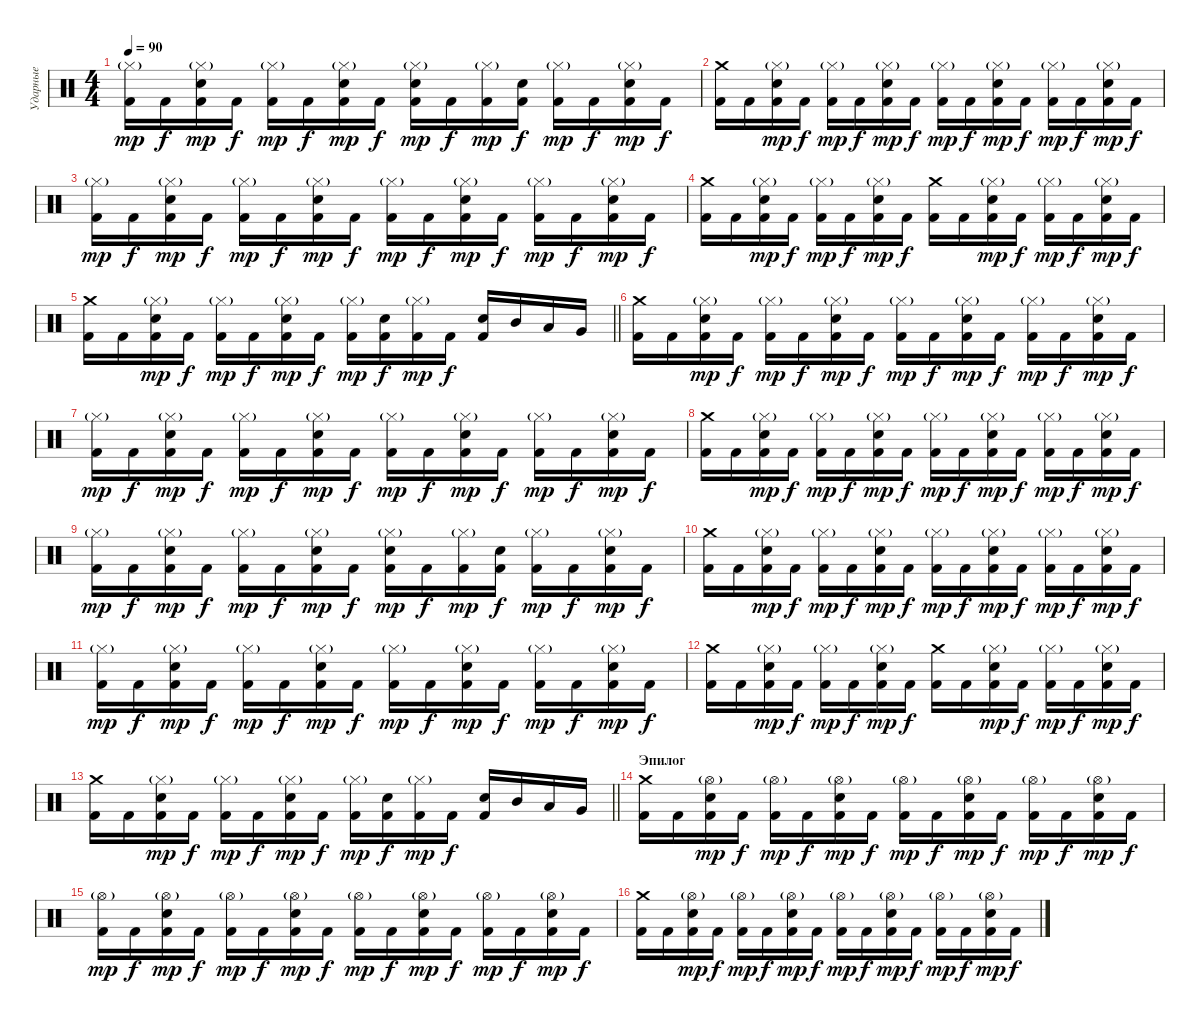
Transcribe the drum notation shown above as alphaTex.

\track ("Ударные" "Ударные") {instrument percussion}
\staff {score}
\articulation defaults
\ts (4 4)
\tempo 90
\clef neutral
\ks c
("Hi-Hat (closed)"{g} "Kick (hit) 2").16{dy mp} "Kick (hit) 2".16{dy f} ("Snare (hit) 2" "Hi-Hat (closed)"{g} "Kick (hit) 2").16{dy mp} "Kick (hit) 2".16{dy f} ("Hi-Hat (closed)"{g} "Kick (hit) 2").16{dy mp} "Kick (hit) 2".16{dy f} ("Snare (hit) 2" "Hi-Hat (closed)"{g} "Kick (hit) 2").16{dy mp} "Kick (hit) 2".16{dy f} ("Snare (hit) 2" "Hi-Hat (closed)"{g} "Kick (hit) 2").16{dy mp} "Kick (hit) 2".16{dy f} ("Hi-Hat (closed)"{g} "Kick (hit) 2").16{dy mp} ("Snare (hit) 2" "Kick (hit) 2").16{dy f} ("Hi-Hat (closed)"{g} "Kick (hit) 2").16{dy mp} "Kick (hit) 2".16{dy f} ("Snare (hit) 2" "Hi-Hat (closed)"{g} "Kick (hit) 2").16{dy mp} "Kick (hit) 2".16{dy f} |
("Crash medium (hit)" "Kick (hit) 2").16 "Kick (hit) 2".16 ("Snare (hit) 2" "Hi-Hat (closed)"{g} "Kick (hit) 2").16{dy mp} "Kick (hit) 2".16{dy f} ("Hi-Hat (closed)"{g} "Kick (hit) 2").16{dy mp} "Kick (hit) 2".16{dy f} ("Snare (hit) 2" "Hi-Hat (closed)"{g} "Kick (hit) 2").16{dy mp} "Kick (hit) 2".16{dy f} ("Hi-Hat (closed)"{g} "Kick (hit) 2").16{dy mp} "Kick (hit) 2".16{dy f} ("Snare (hit) 2" "Hi-Hat (closed)"{g} "Kick (hit) 2").16{dy mp} "Kick (hit) 2".16{dy f} ("Hi-Hat (closed)"{g} "Kick (hit) 2").16{dy mp} "Kick (hit) 2".16{dy f} ("Snare (hit) 2" "Hi-Hat (closed)"{g} "Kick (hit) 2").16{dy mp} "Kick (hit) 2".16{dy f} |
("Hi-Hat (closed)"{g} "Kick (hit) 2").16{dy mp} "Kick (hit) 2".16{dy f} ("Snare (hit) 2" "Hi-Hat (closed)"{g} "Kick (hit) 2").16{dy mp} "Kick (hit) 2".16{dy f} ("Hi-Hat (closed)"{g} "Kick (hit) 2").16{dy mp} "Kick (hit) 2".16{dy f} ("Snare (hit) 2" "Hi-Hat (closed)"{g} "Kick (hit) 2").16{dy mp} "Kick (hit) 2".16{dy f} ("Hi-Hat (closed)"{g} "Kick (hit) 2").16{dy mp} "Kick (hit) 2".16{dy f} ("Snare (hit) 2" "Hi-Hat (closed)"{g} "Kick (hit) 2").16{dy mp} "Kick (hit) 2".16{dy f} ("Hi-Hat (closed)"{g} "Kick (hit) 2").16{dy mp} "Kick (hit) 2".16{dy f} ("Snare (hit) 2" "Hi-Hat (closed)"{g} "Kick (hit) 2").16{dy mp} "Kick (hit) 2".16{dy f} |
("Crash medium (hit)" "Kick (hit) 2").16 "Kick (hit) 2".16 ("Snare (hit) 2" "Hi-Hat (closed)"{g} "Kick (hit) 2").16{dy mp} "Kick (hit) 2".16{dy f} ("Hi-Hat (closed)"{g} "Kick (hit) 2").16{dy mp} "Kick (hit) 2".16{dy f} ("Snare (hit) 2" "Hi-Hat (closed)"{g} "Kick (hit) 2").16{dy mp} "Kick (hit) 2".16{dy f} ("Crash medium (hit)" "Kick (hit) 2").16 "Kick (hit) 2".16 ("Snare (hit) 2" "Hi-Hat (closed)"{g} "Kick (hit) 2").16{dy mp} "Kick (hit) 2".16{dy f} ("Hi-Hat (closed)"{g} "Kick (hit) 2").16{dy mp} "Kick (hit) 2".16{dy f} ("Snare (hit) 2" "Hi-Hat (closed)"{g} "Kick (hit) 2").16{dy mp} "Kick (hit) 2".16{dy f} |
\barLineRight lightlight
("Crash medium (hit)" "Kick (hit) 2").16 "Kick (hit) 2".16 ("Snare (hit) 2" "Hi-Hat (closed)"{g} "Kick (hit) 2").16{dy mp} "Kick (hit) 2".16{dy f} ("Hi-Hat (closed)"{g} "Kick (hit) 2").16{dy mp} "Kick (hit) 2".16{dy f} ("Snare (hit) 2" "Hi-Hat (closed)"{g} "Kick (hit) 2").16{dy mp} "Kick (hit) 2".16{dy f} ("Hi-Hat (closed)"{g} "Kick (hit) 2").16{dy mp} ("Snare (hit) 2" "Kick (hit) 2").16{dy f} ("Hi-Hat (closed)"{g} "Kick (hit) 2").16{dy mp} "Kick (hit) 2".16{dy f} ("Snare (hit) 2" "Kick (hit) 2").16 "Mid Tom (hit)".16 "Low Tom (hit)".16 "Very Low Tom (hit)".16 |
("Crash medium (hit)" "Kick (hit) 2").16 "Kick (hit) 2".16 ("Snare (hit) 2" "Hi-Hat (closed)"{g} "Kick (hit) 2").16{dy mp} "Kick (hit) 2".16{dy f} ("Hi-Hat (closed)"{g} "Kick (hit) 2").16{dy mp} "Kick (hit) 2".16{dy f} ("Snare (hit) 2" "Hi-Hat (closed)"{g} "Kick (hit) 2").16{dy mp} "Kick (hit) 2".16{dy f} ("Hi-Hat (closed)"{g} "Kick (hit) 2").16{dy mp} "Kick (hit) 2".16{dy f} ("Snare (hit) 2" "Hi-Hat (closed)"{g} "Kick (hit) 2").16{dy mp} "Kick (hit) 2".16{dy f} ("Hi-Hat (closed)"{g} "Kick (hit) 2").16{dy mp} "Kick (hit) 2".16{dy f} ("Snare (hit) 2" "Hi-Hat (closed)"{g} "Kick (hit) 2").16{dy mp} "Kick (hit) 2".16{dy f} |
("Hi-Hat (closed)"{g} "Kick (hit) 2").16{dy mp} "Kick (hit) 2".16{dy f} ("Snare (hit) 2" "Hi-Hat (closed)"{g} "Kick (hit) 2").16{dy mp} "Kick (hit) 2".16{dy f} ("Hi-Hat (closed)"{g} "Kick (hit) 2").16{dy mp} "Kick (hit) 2".16{dy f} ("Snare (hit) 2" "Hi-Hat (closed)"{g} "Kick (hit) 2").16{dy mp} "Kick (hit) 2".16{dy f} ("Hi-Hat (closed)"{g} "Kick (hit) 2").16{dy mp} "Kick (hit) 2".16{dy f} ("Snare (hit) 2" "Hi-Hat (closed)"{g} "Kick (hit) 2").16{dy mp} "Kick (hit) 2".16{dy f} ("Hi-Hat (closed)"{g} "Kick (hit) 2").16{dy mp} "Kick (hit) 2".16{dy f} ("Snare (hit) 2" "Hi-Hat (closed)"{g} "Kick (hit) 2").16{dy mp} "Kick (hit) 2".16{dy f} |
("Crash medium (hit)" "Kick (hit) 2").16 "Kick (hit) 2".16 ("Snare (hit) 2" "Hi-Hat (closed)"{g} "Kick (hit) 2").16{dy mp} "Kick (hit) 2".16{dy f} ("Hi-Hat (closed)"{g} "Kick (hit) 2").16{dy mp} "Kick (hit) 2".16{dy f} ("Snare (hit) 2" "Hi-Hat (closed)"{g} "Kick (hit) 2").16{dy mp} "Kick (hit) 2".16{dy f} ("Hi-Hat (closed)"{g} "Kick (hit) 2").16{dy mp} "Kick (hit) 2".16{dy f} ("Snare (hit) 2" "Hi-Hat (closed)"{g} "Kick (hit) 2").16{dy mp} "Kick (hit) 2".16{dy f} ("Hi-Hat (closed)"{g} "Kick (hit) 2").16{dy mp} "Kick (hit) 2".16{dy f} ("Snare (hit) 2" "Hi-Hat (closed)"{g} "Kick (hit) 2").16{dy mp} "Kick (hit) 2".16{dy f} |
("Hi-Hat (closed)"{g} "Kick (hit) 2").16{dy mp} "Kick (hit) 2".16{dy f} ("Snare (hit) 2" "Hi-Hat (closed)"{g} "Kick (hit) 2").16{dy mp} "Kick (hit) 2".16{dy f} ("Hi-Hat (closed)"{g} "Kick (hit) 2").16{dy mp} "Kick (hit) 2".16{dy f} ("Snare (hit) 2" "Hi-Hat (closed)"{g} "Kick (hit) 2").16{dy mp} "Kick (hit) 2".16{dy f} ("Snare (hit) 2" "Hi-Hat (closed)"{g} "Kick (hit) 2").16{dy mp} "Kick (hit) 2".16{dy f} ("Hi-Hat (closed)"{g} "Kick (hit) 2").16{dy mp} ("Snare (hit) 2" "Kick (hit) 2").16{dy f} ("Hi-Hat (closed)"{g} "Kick (hit) 2").16{dy mp} "Kick (hit) 2".16{dy f} ("Snare (hit) 2" "Hi-Hat (closed)"{g} "Kick (hit) 2").16{dy mp} "Kick (hit) 2".16{dy f} |
("Crash medium (hit)" "Kick (hit) 2").16 "Kick (hit) 2".16 ("Snare (hit) 2" "Hi-Hat (closed)"{g} "Kick (hit) 2").16{dy mp} "Kick (hit) 2".16{dy f} ("Hi-Hat (closed)"{g} "Kick (hit) 2").16{dy mp} "Kick (hit) 2".16{dy f} ("Snare (hit) 2" "Hi-Hat (closed)"{g} "Kick (hit) 2").16{dy mp} "Kick (hit) 2".16{dy f} ("Hi-Hat (closed)"{g} "Kick (hit) 2").16{dy mp} "Kick (hit) 2".16{dy f} ("Snare (hit) 2" "Hi-Hat (closed)"{g} "Kick (hit) 2").16{dy mp} "Kick (hit) 2".16{dy f} ("Hi-Hat (closed)"{g} "Kick (hit) 2").16{dy mp} "Kick (hit) 2".16{dy f} ("Snare (hit) 2" "Hi-Hat (closed)"{g} "Kick (hit) 2").16{dy mp} "Kick (hit) 2".16{dy f} |
("Hi-Hat (closed)"{g} "Kick (hit) 2").16{dy mp} "Kick (hit) 2".16{dy f} ("Snare (hit) 2" "Hi-Hat (closed)"{g} "Kick (hit) 2").16{dy mp} "Kick (hit) 2".16{dy f} ("Hi-Hat (closed)"{g} "Kick (hit) 2").16{dy mp} "Kick (hit) 2".16{dy f} ("Snare (hit) 2" "Hi-Hat (closed)"{g} "Kick (hit) 2").16{dy mp} "Kick (hit) 2".16{dy f} ("Hi-Hat (closed)"{g} "Kick (hit) 2").16{dy mp} "Kick (hit) 2".16{dy f} ("Snare (hit) 2" "Hi-Hat (closed)"{g} "Kick (hit) 2").16{dy mp} "Kick (hit) 2".16{dy f} ("Hi-Hat (closed)"{g} "Kick (hit) 2").16{dy mp} "Kick (hit) 2".16{dy f} ("Snare (hit) 2" "Hi-Hat (closed)"{g} "Kick (hit) 2").16{dy mp} "Kick (hit) 2".16{dy f} |
("Crash medium (hit)" "Kick (hit) 2").16 "Kick (hit) 2".16 ("Snare (hit) 2" "Hi-Hat (closed)"{g} "Kick (hit) 2").16{dy mp} "Kick (hit) 2".16{dy f} ("Hi-Hat (closed)"{g} "Kick (hit) 2").16{dy mp} "Kick (hit) 2".16{dy f} ("Snare (hit) 2" "Hi-Hat (closed)"{g} "Kick (hit) 2").16{dy mp} "Kick (hit) 2".16{dy f} ("Crash medium (hit)" "Kick (hit) 2").16 "Kick (hit) 2".16 ("Snare (hit) 2" "Hi-Hat (closed)"{g} "Kick (hit) 2").16{dy mp} "Kick (hit) 2".16{dy f} ("Hi-Hat (closed)"{g} "Kick (hit) 2").16{dy mp} "Kick (hit) 2".16{dy f} ("Snare (hit) 2" "Hi-Hat (closed)"{g} "Kick (hit) 2").16{dy mp} "Kick (hit) 2".16{dy f} |
\barLineRight lightlight
("Crash medium (hit)" "Kick (hit) 2").16 "Kick (hit) 2".16 ("Snare (hit) 2" "Hi-Hat (closed)"{g} "Kick (hit) 2").16{dy mp} "Kick (hit) 2".16{dy f} ("Hi-Hat (closed)"{g} "Kick (hit) 2").16{dy mp} "Kick (hit) 2".16{dy f} ("Snare (hit) 2" "Hi-Hat (closed)"{g} "Kick (hit) 2").16{dy mp} "Kick (hit) 2".16{dy f} ("Hi-Hat (closed)"{g} "Kick (hit) 2").16{dy mp} ("Snare (hit) 2" "Kick (hit) 2").16{dy f} ("Hi-Hat (closed)"{g} "Kick (hit) 2").16{dy mp} "Kick (hit) 2".16{dy f} ("Snare (hit) 2" "Kick (hit) 2").16 "Mid Tom (hit)".16 "Low Tom (hit)".16 "Very Low Tom (hit)".16 |
\section ("" "Эпилог")
("Crash medium (hit)" "Kick (hit) 2").16{volume 12} "Kick (hit) 2".16 ("Snare (hit) 2" "Hi-Hat (open)"{g} "Kick (hit) 2").16{dy mp} "Kick (hit) 2".16{dy f} ("Hi-Hat (open)"{g} "Kick (hit) 2").16{dy mp} "Kick (hit) 2".16{dy f} ("Snare (hit) 2" "Hi-Hat (open)"{g} "Kick (hit) 2").16{dy mp} "Kick (hit) 2".16{dy f} ("Hi-Hat (open)"{g} "Kick (hit) 2").16{dy mp} "Kick (hit) 2".16{dy f} ("Snare (hit) 2" "Hi-Hat (open)"{g} "Kick (hit) 2").16{dy mp} "Kick (hit) 2".16{dy f} ("Hi-Hat (open)"{g} "Kick (hit) 2").16{dy mp} "Kick (hit) 2".16{dy f} ("Snare (hit) 2" "Hi-Hat (open)"{g} "Kick (hit) 2").16{dy mp} "Kick (hit) 2".16{dy f} |
("Hi-Hat (open)"{g} "Kick (hit) 2").16{dy mp} "Kick (hit) 2".16{dy f} ("Snare (hit) 2" "Hi-Hat (open)"{g} "Kick (hit) 2").16{dy mp} "Kick (hit) 2".16{dy f} ("Hi-Hat (open)"{g} "Kick (hit) 2").16{dy mp} "Kick (hit) 2".16{dy f} ("Snare (hit) 2" "Hi-Hat (open)"{g} "Kick (hit) 2").16{dy mp} "Kick (hit) 2".16{dy f} ("Hi-Hat (open)"{g} "Kick (hit) 2").16{dy mp} "Kick (hit) 2".16{dy f} ("Snare (hit) 2" "Hi-Hat (open)"{g} "Kick (hit) 2").16{dy mp} "Kick (hit) 2".16{dy f} ("Hi-Hat (open)"{g} "Kick (hit) 2").16{dy mp} "Kick (hit) 2".16{dy f} ("Snare (hit) 2" "Hi-Hat (open)"{g} "Kick (hit) 2").16{dy mp} "Kick (hit) 2".16{dy f} |
("Crash medium (hit)" "Kick (hit) 2").16{volume 10} "Kick (hit) 2".16 ("Snare (hit) 2" "Hi-Hat (open)"{g} "Kick (hit) 2").16{dy mp} "Kick (hit) 2".16{dy f} ("Hi-Hat (open)"{g} "Kick (hit) 2").16{dy mp} "Kick (hit) 2".16{dy f} ("Snare (hit) 2" "Hi-Hat (open)"{g} "Kick (hit) 2").16{dy mp} "Kick (hit) 2".16{dy f} ("Hi-Hat (open)"{g} "Kick (hit) 2").16{dy mp} "Kick (hit) 2".16{dy f} ("Snare (hit) 2" "Hi-Hat (open)"{g} "Kick (hit) 2").16{dy mp} "Kick (hit) 2".16{dy f} ("Hi-Hat (open)"{g} "Kick (hit) 2").16{dy mp} "Kick (hit) 2".16{dy f} ("Snare (hit) 2" "Hi-Hat (open)"{g} "Kick (hit) 2").16{dy mp} "Kick (hit) 2".16{dy f}
